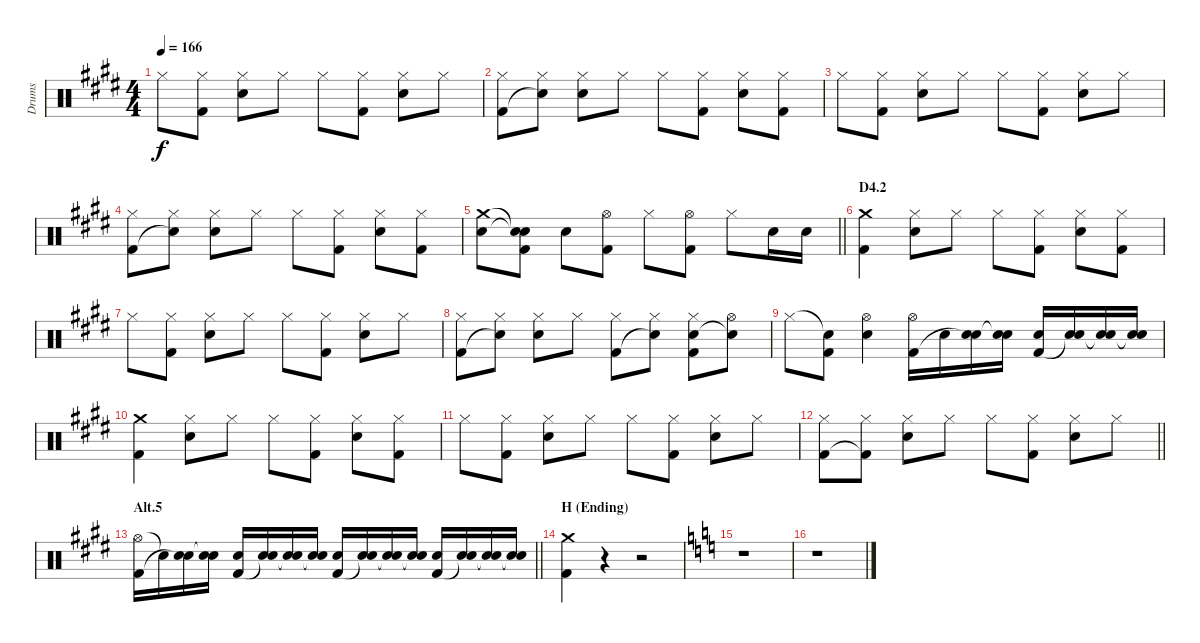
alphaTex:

\track ("Drums" "Drums") {instrument percussion}
\staff {score}
\articulation defaults
\ts (4 4)
\tempo 166
\clef neutral
\ks e "Hi-Hat (closed)".8{dy f}
("Hi-Hat (closed)" "Kick (hit) 2").8 ("Hi-Hat (closed)" "Snare (hit) 2").8 "Hi-Hat (closed)".8 "Hi-Hat (closed)".8 ("Hi-Hat (closed)" "Kick (hit) 2").8 ("Hi-Hat (closed)" "Snare (hit) 2").8 "Hi-Hat (closed)".8 |
("Hi-Hat (closed)" "Kick (hit) 2").8 ("Hi-Hat (closed)" "Snare (hit)"{t}).8 ("Hi-Hat (closed)" "Snare (hit) 2").8 "Hi-Hat (closed)".8 "Hi-Hat (closed)".8 ("Hi-Hat (closed)" "Kick (hit) 2").8 ("Hi-Hat (closed)" "Snare (hit) 2").8 ("Hi-Hat (closed)" "Kick (hit) 2").8 |
"Hi-Hat (closed)".8 ("Hi-Hat (closed)" "Kick (hit) 2").8 ("Hi-Hat (closed)" "Snare (hit) 2").8 "Hi-Hat (closed)".8 "Hi-Hat (closed)".8 ("Hi-Hat (closed)" "Kick (hit) 2").8 ("Hi-Hat (closed)" "Snare (hit) 2").8 "Hi-Hat (closed)".8 |
("Hi-Hat (closed)" "Kick (hit) 2").8 ("Hi-Hat (closed)" "Snare (hit)"{t}).8 ("Hi-Hat (closed)" "Snare (hit) 2").8 "Hi-Hat (closed)".8 "Hi-Hat (closed)".8 ("Hi-Hat (closed)" "Kick (hit) 2").8 ("Hi-Hat (closed)" "Snare (hit) 2").8 ("Hi-Hat (closed)" "Kick (hit) 2").8 |
\barLineRight lightlight
("Crash medium (hit)" "Snare (hit) 2").8 ("Snare (hit)"{t} "Snare (hit)"{t} "Kick (hit) 2").8 "Snare (hit) 2".8 ("Hi-Hat (open)" "Kick (hit) 2").8 "Hi-Hat (closed)".8 ("Hi-Hat (open)" "Kick (hit) 2").8 "Hi-Hat (closed)".8 "Snare (hit) 2".16 "Snare (hit) 2".16 |
\section ("" "D4.2")
("Crash medium (hit)" "Kick (hit) 2").4 ("Hi-Hat (closed)" "Snare (hit) 2").8 "Hi-Hat (closed)".8 "Hi-Hat (closed)".8 ("Hi-Hat (closed)" "Kick (hit) 2").8 ("Hi-Hat (closed)" "Snare (hit) 2").8 ("Hi-Hat (closed)" "Kick (hit) 2").8 |
"Hi-Hat (closed)".8 ("Hi-Hat (closed)" "Kick (hit) 2").8 ("Hi-Hat (closed)" "Snare (hit) 2").8 "Hi-Hat (closed)".8 "Hi-Hat (closed)".8 ("Hi-Hat (closed)" "Kick (hit) 2").8 ("Hi-Hat (closed)" "Snare (hit) 2").8 "Hi-Hat (closed)".8 |
("Hi-Hat (closed)" "Kick (hit) 2").8 ("Hi-Hat (closed)" "Snare (hit)"{t}).8 ("Hi-Hat (closed)" "Snare (hit) 2").8 "Hi-Hat (closed)".8 ("Hi-Hat (closed)" "Kick (hit) 2").8 ("Hi-Hat (closed)" "Snare (hit)"{t}).8 ("Hi-Hat (closed)" "Snare (hit) 2" "Kick (hit) 2").8 ("Hi-Hat (open)" "Snare (hit)"{t}).8 |
"Hi-Hat (closed)".8 ("Snare (hit)"{t} "Kick (hit) 2").8 ("Hi-Hat (open)" "Snare (hit) 2").4 ("Hi-Hat (open)" "Kick (hit) 2").16 "Snare (hit) 2".16 ("Snare (hit) 2" "Snare (hit)"{t}).16 ("Snare (hit) 2" "Snare (hit)"{t}).16 ("Snare (hit) 2" "Kick (hit) 2").16 ("Snare (hit) 2" "Snare (hit)"{t}).16 ("Snare (hit) 2" "Snare (hit)"{t}).16 ("Snare (hit) 2" "Snare (hit)"{t}).16 |
("Crash medium (hit)" "Kick (hit) 2").4 ("Hi-Hat (closed)" "Snare (hit) 2").8 "Hi-Hat (closed)".8 "Hi-Hat (closed)".8 ("Hi-Hat (closed)" "Kick (hit) 2").8 ("Hi-Hat (closed)" "Snare (hit) 2").8 ("Hi-Hat (closed)" "Kick (hit) 2").8 |
"Hi-Hat (closed)".8 ("Hi-Hat (closed)" "Kick (hit) 2").8 ("Hi-Hat (closed)" "Snare (hit) 2").8 "Hi-Hat (closed)".8 "Hi-Hat (closed)".8 ("Hi-Hat (closed)" "Kick (hit) 2").8 ("Hi-Hat (closed)" "Snare (hit) 2").8 "Hi-Hat (closed)".8 |
\barLineRight lightlight
("Hi-Hat (closed)" "Kick (hit) 2").8 ("Hi-Hat (closed)" "Kick (hit) 2"{t}).8 ("Hi-Hat (closed)" "Snare (hit) 2").8 "Hi-Hat (closed)".8 "Hi-Hat (closed)".8 ("Hi-Hat (closed)" "Kick (hit) 2").8 ("Hi-Hat (closed)" "Snare (hit) 2").8 "Hi-Hat (closed)".8 |
\section ("" "Alt.5")
\barLineRight lightlight
("Hi-Hat (open)" "Kick (hit) 2").16 "Snare (hit)"{t}.16 ("Snare (hit) 2" "Snare (hit)"{t}).16 ("Snare (hit) 2" "Snare (hit)"{t}).16 ("Snare (hit) 2" "Kick (hit) 2").16 ("Snare (hit) 2" "Snare (hit)"{t}).16 ("Snare (hit) 2" "Snare (hit)"{t}).16 ("Snare (hit) 2" "Snare (hit)"{t}).16 ("Snare (hit) 2" "Kick (hit) 2").16 ("Snare (hit) 2" "Snare (hit)"{t}).16 ("Snare (hit) 2" "Snare (hit)"{t}).16 ("Snare (hit) 2" "Snare (hit)"{t}).16 ("Snare (hit) 2" "Kick (hit) 2").16 ("Snare (hit) 2" "Snare (hit)"{t}).16 ("Snare (hit) 2" "Snare (hit)"{t}).16 ("Snare (hit) 2" "Snare (hit)"{t}).16 |
\section ("" "H (Ending)")
("Crash medium (hit)" "Kick (hit) 2").4 r.4 r.2 |
\ks c
r.1 |
r.1
